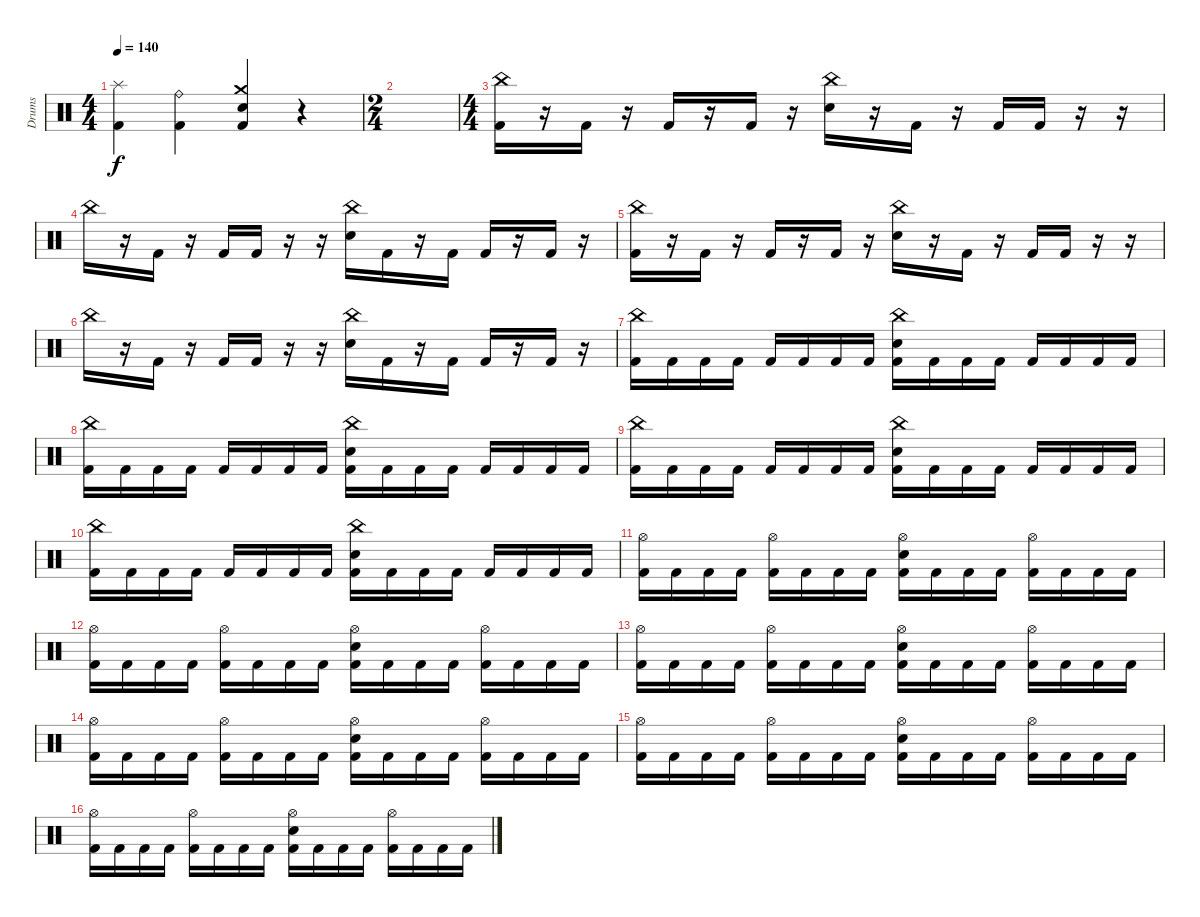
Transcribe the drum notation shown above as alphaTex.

\track ("Drums" "Drums") {instrument percussion}
\staff {score}
\articulation defaults
\ts (4 4)
\tempo 140
\clef neutral
\ks c
("Splash (hit)" "Kick (hit) 2").4{dy f} ("Ride (bell)" "Kick (hit) 2").4 ("Crash medium (hit)" "Snare (hit) 2" "Kick (hit) 2").4 r.4 |
\ts (2 4)
|
\ts (4 4)
("China (hit)" "Kick (hit) 2").16 r.16 "Kick (hit) 2".16 r.16 "Kick (hit) 2".16 r.16 "Kick (hit) 2".16 r.16 ("China (hit)" "Snare (hit) 2").16 r.16 "Kick (hit) 2".16 r.16 "Kick (hit) 2".16 "Kick (hit) 2".16 r.16 r.16 |
"China (hit)".16 r.16 "Kick (hit) 2".16 r.16 "Kick (hit) 2".16 "Kick (hit) 2".16 r.16 r.16 ("China (hit)" "Snare (hit) 2").16 "Kick (hit) 2".16 r.16 "Kick (hit) 2".16 "Kick (hit) 2".16 r.16 "Kick (hit) 2".16 r.16 |
("China (hit)" "Kick (hit) 2").16 r.16 "Kick (hit) 2".16 r.16 "Kick (hit) 2".16 r.16 "Kick (hit) 2".16 r.16 ("China (hit)" "Snare (hit) 2").16 r.16 "Kick (hit) 2".16 r.16 "Kick (hit) 2".16 "Kick (hit) 2".16 r.16 r.16 |
"China (hit)".16 r.16 "Kick (hit) 2".16 r.16 "Kick (hit) 2".16 "Kick (hit) 2".16 r.16 r.16 ("China (hit)" "Snare (hit) 2").16 "Kick (hit) 2".16 r.16 "Kick (hit) 2".16 "Kick (hit) 2".16 r.16 "Kick (hit) 2".16 r.16 |
("China (hit)" "Kick (hit) 2").16 "Kick (hit) 2".16 "Kick (hit) 2".16 "Kick (hit) 2".16 "Kick (hit) 2".16 "Kick (hit) 2".16 "Kick (hit) 2".16 "Kick (hit) 2".16 ("China (hit)" "Snare (hit) 2" "Kick (hit) 2").16 "Kick (hit) 2".16 "Kick (hit) 2".16 "Kick (hit) 2".16 "Kick (hit) 2".16 "Kick (hit) 2".16 "Kick (hit) 2".16 "Kick (hit) 2".16 |
("China (hit)" "Kick (hit) 2").16 "Kick (hit) 2".16 "Kick (hit) 2".16 "Kick (hit) 2".16 "Kick (hit) 2".16 "Kick (hit) 2".16 "Kick (hit) 2".16 "Kick (hit) 2".16 ("China (hit)" "Snare (hit) 2" "Kick (hit) 2").16 "Kick (hit) 2".16 "Kick (hit) 2".16 "Kick (hit) 2".16 "Kick (hit) 2".16 "Kick (hit) 2".16 "Kick (hit) 2".16 "Kick (hit) 2".16 |
("China (hit)" "Kick (hit) 2").16 "Kick (hit) 2".16 "Kick (hit) 2".16 "Kick (hit) 2".16 "Kick (hit) 2".16 "Kick (hit) 2".16 "Kick (hit) 2".16 "Kick (hit) 2".16 ("China (hit)" "Snare (hit) 2" "Kick (hit) 2").16 "Kick (hit) 2".16 "Kick (hit) 2".16 "Kick (hit) 2".16 "Kick (hit) 2".16 "Kick (hit) 2".16 "Kick (hit) 2".16 "Kick (hit) 2".16 |
("China (hit)" "Kick (hit) 2").16 "Kick (hit) 2".16 "Kick (hit) 2".16 "Kick (hit) 2".16 "Kick (hit) 2".16 "Kick (hit) 2".16 "Kick (hit) 2".16 "Kick (hit) 2".16 ("China (hit)" "Snare (hit) 2" "Kick (hit) 2").16 "Kick (hit) 2".16 "Kick (hit) 2".16 "Kick (hit) 2".16 "Kick (hit) 2".16 "Kick (hit) 2".16 "Kick (hit) 2".16 "Kick (hit) 2".16 |
("Hi-Hat (open)" "Kick (hit) 2").16 "Kick (hit) 2".16 "Kick (hit) 2".16 "Kick (hit) 2".16 ("Hi-Hat (open)" "Kick (hit) 2").16 "Kick (hit) 2".16 "Kick (hit) 2".16 "Kick (hit) 2".16 ("Hi-Hat (open)" "Snare (hit) 2" "Kick (hit) 2").16 "Kick (hit) 2".16 "Kick (hit) 2".16 "Kick (hit) 2".16 ("Hi-Hat (open)" "Kick (hit) 2").16 "Kick (hit) 2".16 "Kick (hit) 2".16 "Kick (hit) 2".16 |
("Hi-Hat (open)" "Kick (hit) 2").16 "Kick (hit) 2".16 "Kick (hit) 2".16 "Kick (hit) 2".16 ("Hi-Hat (open)" "Kick (hit) 2").16 "Kick (hit) 2".16 "Kick (hit) 2".16 "Kick (hit) 2".16 ("Hi-Hat (open)" "Snare (hit) 2" "Kick (hit) 2").16 "Kick (hit) 2".16 "Kick (hit) 2".16 "Kick (hit) 2".16 ("Hi-Hat (open)" "Kick (hit) 2").16 "Kick (hit) 2".16 "Kick (hit) 2".16 "Kick (hit) 2".16 |
("Hi-Hat (open)" "Kick (hit) 2").16 "Kick (hit) 2".16 "Kick (hit) 2".16 "Kick (hit) 2".16 ("Hi-Hat (open)" "Kick (hit) 2").16 "Kick (hit) 2".16 "Kick (hit) 2".16 "Kick (hit) 2".16 ("Hi-Hat (open)" "Snare (hit) 2" "Kick (hit) 2").16 "Kick (hit) 2".16 "Kick (hit) 2".16 "Kick (hit) 2".16 ("Hi-Hat (open)" "Kick (hit) 2").16 "Kick (hit) 2".16 "Kick (hit) 2".16 "Kick (hit) 2".16 |
("Hi-Hat (open)" "Kick (hit) 2").16 "Kick (hit) 2".16 "Kick (hit) 2".16 "Kick (hit) 2".16 ("Hi-Hat (open)" "Kick (hit) 2").16 "Kick (hit) 2".16 "Kick (hit) 2".16 "Kick (hit) 2".16 ("Hi-Hat (open)" "Snare (hit) 2" "Kick (hit) 2").16 "Kick (hit) 2".16 "Kick (hit) 2".16 "Kick (hit) 2".16 ("Hi-Hat (open)" "Kick (hit) 2").16 "Kick (hit) 2".16 "Kick (hit) 2".16 "Kick (hit) 2".16 |
("Hi-Hat (open)" "Kick (hit) 2").16 "Kick (hit) 2".16 "Kick (hit) 2".16 "Kick (hit) 2".16 ("Hi-Hat (open)" "Kick (hit) 2").16 "Kick (hit) 2".16 "Kick (hit) 2".16 "Kick (hit) 2".16 ("Hi-Hat (open)" "Snare (hit) 2" "Kick (hit) 2").16 "Kick (hit) 2".16 "Kick (hit) 2".16 "Kick (hit) 2".16 ("Hi-Hat (open)" "Kick (hit) 2").16 "Kick (hit) 2".16 "Kick (hit) 2".16 "Kick (hit) 2".16 |
("Hi-Hat (open)" "Kick (hit) 2").16 "Kick (hit) 2".16 "Kick (hit) 2".16 "Kick (hit) 2".16 ("Hi-Hat (open)" "Kick (hit) 2").16 "Kick (hit) 2".16 "Kick (hit) 2".16 "Kick (hit) 2".16 ("Hi-Hat (open)" "Snare (hit) 2" "Kick (hit) 2").16 "Kick (hit) 2".16 "Kick (hit) 2".16 "Kick (hit) 2".16 ("Hi-Hat (open)" "Kick (hit) 2").16 "Kick (hit) 2".16 "Kick (hit) 2".16 "Kick (hit) 2".16
